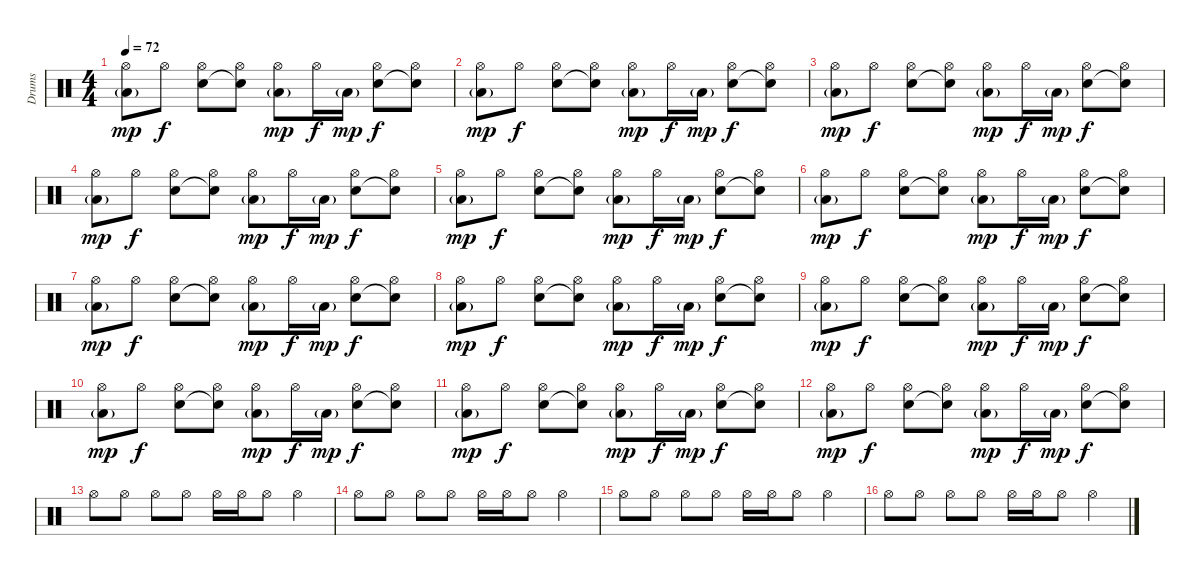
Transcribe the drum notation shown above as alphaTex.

\track ("Drums" "Drums") {instrument percussion}
\staff {score}
\articulation defaults
\ts (4 4)
\tempo 72
\clef neutral
\ks c
("Hi-Hat (open)" "Low Floor Tom (hit)"{g}).8{dy mp} "Hi-Hat (open)".8{dy f} ("Hi-Hat (open)" "Electric Snare (hit)").8 ("Hi-Hat (open)" "Electric Snare (hit)"{t}).8 ("Hi-Hat (open)" "Low Floor Tom (hit)"{g}).8{dy mp} "Hi-Hat (open)".16{dy f} "Low Floor Tom (hit)"{g}.16{dy mp} ("Hi-Hat (open)" "Electric Snare (hit)").8{dy f} ("Hi-Hat (open)" "Snare (hit)"{t}).8 |
("Hi-Hat (open)" "Low Floor Tom (hit)"{g}).8{dy mp} "Hi-Hat (open)".8{dy f} ("Hi-Hat (open)" "Electric Snare (hit)").8 ("Hi-Hat (open)" "Electric Snare (hit)"{t}).8 ("Hi-Hat (open)" "Low Floor Tom (hit)"{g}).8{dy mp} "Hi-Hat (open)".16{dy f} "Low Floor Tom (hit)"{g}.16{dy mp} ("Hi-Hat (open)" "Electric Snare (hit)").8{dy f} ("Hi-Hat (open)" "Snare (hit)"{t}).8 |
("Hi-Hat (open)" "Low Floor Tom (hit)"{g}).8{dy mp} "Hi-Hat (open)".8{dy f} ("Hi-Hat (open)" "Electric Snare (hit)").8 ("Hi-Hat (open)" "Electric Snare (hit)"{t}).8 ("Hi-Hat (open)" "Low Floor Tom (hit)"{g}).8{dy mp} "Hi-Hat (open)".16{dy f} "Low Floor Tom (hit)"{g}.16{dy mp} ("Hi-Hat (open)" "Electric Snare (hit)").8{dy f} ("Hi-Hat (open)" "Snare (hit)"{t}).8 |
("Hi-Hat (open)" "Low Floor Tom (hit)"{g}).8{dy mp} "Hi-Hat (open)".8{dy f} ("Hi-Hat (open)" "Electric Snare (hit)").8 ("Hi-Hat (open)" "Electric Snare (hit)"{t}).8 ("Hi-Hat (open)" "Low Floor Tom (hit)"{g}).8{dy mp} "Hi-Hat (open)".16{dy f} "Low Floor Tom (hit)"{g}.16{dy mp} ("Hi-Hat (open)" "Electric Snare (hit)").8{dy f} ("Hi-Hat (open)" "Snare (hit)"{t}).8 |
("Hi-Hat (open)" "Low Floor Tom (hit)"{g}).8{dy mp} "Hi-Hat (open)".8{dy f} ("Hi-Hat (open)" "Electric Snare (hit)").8 ("Hi-Hat (open)" "Electric Snare (hit)"{t}).8 ("Hi-Hat (open)" "Low Floor Tom (hit)"{g}).8{dy mp} "Hi-Hat (open)".16{dy f} "Low Floor Tom (hit)"{g}.16{dy mp} ("Hi-Hat (open)" "Electric Snare (hit)").8{dy f} ("Hi-Hat (open)" "Snare (hit)"{t}).8 |
("Hi-Hat (open)" "Low Floor Tom (hit)"{g}).8{dy mp} "Hi-Hat (open)".8{dy f} ("Hi-Hat (open)" "Electric Snare (hit)").8 ("Hi-Hat (open)" "Electric Snare (hit)"{t}).8 ("Hi-Hat (open)" "Low Floor Tom (hit)"{g}).8{dy mp} "Hi-Hat (open)".16{dy f} "Low Floor Tom (hit)"{g}.16{dy mp} ("Hi-Hat (open)" "Electric Snare (hit)").8{dy f} ("Hi-Hat (open)" "Snare (hit)"{t}).8 |
("Hi-Hat (open)" "Low Floor Tom (hit)"{g}).8{dy mp} "Hi-Hat (open)".8{dy f} ("Hi-Hat (open)" "Electric Snare (hit)").8 ("Hi-Hat (open)" "Electric Snare (hit)"{t}).8 ("Hi-Hat (open)" "Low Floor Tom (hit)"{g}).8{dy mp} "Hi-Hat (open)".16{dy f} "Low Floor Tom (hit)"{g}.16{dy mp} ("Hi-Hat (open)" "Electric Snare (hit)").8{dy f} ("Hi-Hat (open)" "Snare (hit)"{t}).8 |
("Hi-Hat (open)" "Low Floor Tom (hit)"{g}).8{dy mp} "Hi-Hat (open)".8{dy f} ("Hi-Hat (open)" "Electric Snare (hit)").8 ("Hi-Hat (open)" "Electric Snare (hit)"{t}).8 ("Hi-Hat (open)" "Low Floor Tom (hit)"{g}).8{dy mp} "Hi-Hat (open)".16{dy f} "Low Floor Tom (hit)"{g}.16{dy mp} ("Hi-Hat (open)" "Electric Snare (hit)").8{dy f} ("Hi-Hat (open)" "Snare (hit)"{t}).8 |
("Hi-Hat (open)" "Low Floor Tom (hit)"{g}).8{dy mp} "Hi-Hat (open)".8{dy f} ("Hi-Hat (open)" "Electric Snare (hit)").8 ("Hi-Hat (open)" "Electric Snare (hit)"{t}).8 ("Hi-Hat (open)" "Low Floor Tom (hit)"{g}).8{dy mp} "Hi-Hat (open)".16{dy f} "Low Floor Tom (hit)"{g}.16{dy mp} ("Hi-Hat (open)" "Electric Snare (hit)").8{dy f} ("Hi-Hat (open)" "Snare (hit)"{t}).8 |
("Hi-Hat (open)" "Low Floor Tom (hit)"{g}).8{dy mp} "Hi-Hat (open)".8{dy f} ("Hi-Hat (open)" "Electric Snare (hit)").8 ("Hi-Hat (open)" "Electric Snare (hit)"{t}).8 ("Hi-Hat (open)" "Low Floor Tom (hit)"{g}).8{dy mp} "Hi-Hat (open)".16{dy f} "Low Floor Tom (hit)"{g}.16{dy mp} ("Hi-Hat (open)" "Electric Snare (hit)").8{dy f} ("Hi-Hat (open)" "Snare (hit)"{t}).8 |
("Hi-Hat (open)" "Low Floor Tom (hit)"{g}).8{dy mp} "Hi-Hat (open)".8{dy f} ("Hi-Hat (open)" "Electric Snare (hit)").8 ("Hi-Hat (open)" "Electric Snare (hit)"{t}).8 ("Hi-Hat (open)" "Low Floor Tom (hit)"{g}).8{dy mp} "Hi-Hat (open)".16{dy f} "Low Floor Tom (hit)"{g}.16{dy mp} ("Hi-Hat (open)" "Electric Snare (hit)").8{dy f} ("Hi-Hat (open)" "Snare (hit)"{t}).8 |
("Hi-Hat (open)" "Low Floor Tom (hit)"{g}).8{dy mp} "Hi-Hat (open)".8{dy f} ("Hi-Hat (open)" "Electric Snare (hit)").8 ("Hi-Hat (open)" "Electric Snare (hit)"{t}).8 ("Hi-Hat (open)" "Low Floor Tom (hit)"{g}).8{dy mp} "Hi-Hat (open)".16{dy f} "Low Floor Tom (hit)"{g}.16{dy mp} ("Hi-Hat (open)" "Electric Snare (hit)").8{dy f} ("Hi-Hat (open)" "Snare (hit)"{t}).8 |
"Hi-Hat (open)".8 "Hi-Hat (open)".8 "Hi-Hat (open)".8 "Hi-Hat (open)".8 "Hi-Hat (open)".16 "Hi-Hat (open)".16 "Hi-Hat (open)".8 "Hi-Hat (open)".4 |
"Hi-Hat (open)".8 "Hi-Hat (open)".8 "Hi-Hat (open)".8 "Hi-Hat (open)".8 "Hi-Hat (open)".16 "Hi-Hat (open)".16 "Hi-Hat (open)".8 "Hi-Hat (open)".4 |
"Hi-Hat (open)".8 "Hi-Hat (open)".8 "Hi-Hat (open)".8 "Hi-Hat (open)".8 "Hi-Hat (open)".16 "Hi-Hat (open)".16 "Hi-Hat (open)".8 "Hi-Hat (open)".4 |
"Hi-Hat (open)".8 "Hi-Hat (open)".8 "Hi-Hat (open)".8 "Hi-Hat (open)".8 "Hi-Hat (open)".16 "Hi-Hat (open)".16 "Hi-Hat (open)".8 "Hi-Hat (open)".4
